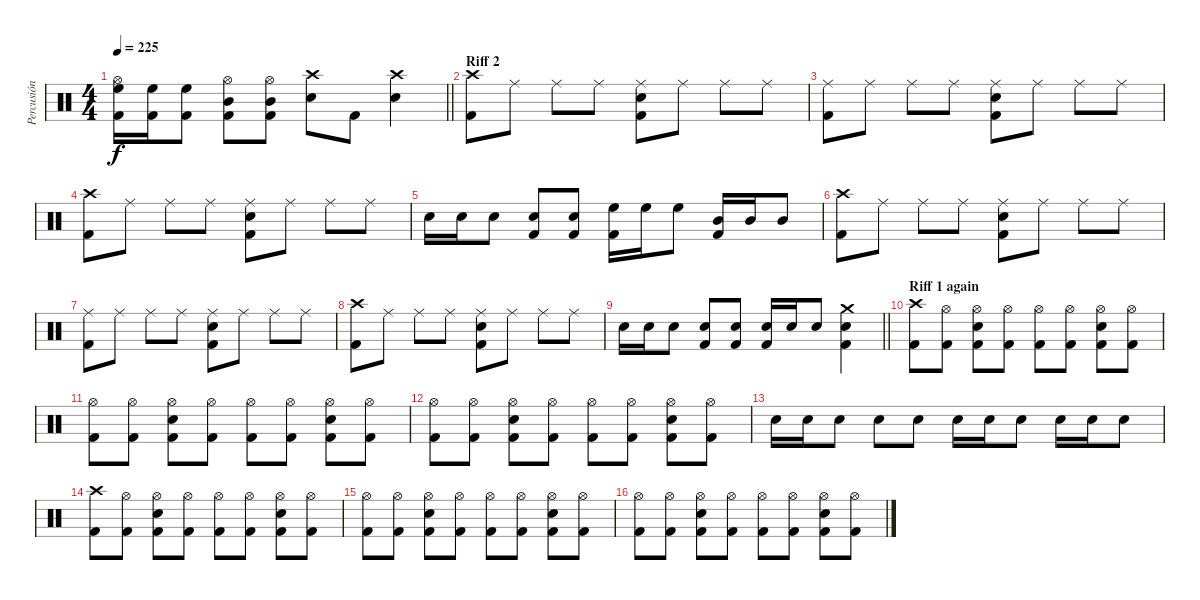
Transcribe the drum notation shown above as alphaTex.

\track ("Percusión" "Percusión") {instrument percussion}
\staff {score}
\articulation defaults
\ts (4 4)
\tempo 225
\clef neutral
\barLineRight lightlight
\ks c
("Hi-Hat (open)" "High Floor Tom (hit)" "Kick (hit) 2").16{dy f} ("High Floor Tom (hit)" "Kick (hit) 2").16 ("High Floor Tom (hit)" "Kick (hit) 2").8 ("Hi-Hat (open)" "Mid Tom (hit)" "Kick (hit) 2").8 ("Hi-Hat (open)" "Mid Tom (hit)" "Kick (hit) 2").8 ("Crash high (hit)" "Electric Snare (hit)").8 "Kick (hit) 2".8 ("Crash high (hit)" "Electric Snare (hit)").4 |
\section ("" "Riff 2")
("Crash high (hit)" "Kick (hit) 2").8 "Ride (middle)".8 "Ride (middle)".8 "Ride (middle)".8 ("Ride (middle)" "Electric Snare (hit)" "Kick (hit) 2").8 "Ride (middle)".8 "Ride (middle)".8 "Ride (middle)".8 |
("Ride (middle)" "Kick (hit) 2").8 "Ride (middle)".8 "Ride (middle)".8 "Ride (middle)".8 ("Ride (middle)" "Electric Snare (hit)" "Kick (hit) 2").8 "Ride (middle)".8 "Ride (middle)".8 "Ride (middle)".8 |
("Crash high (hit)" "Kick (hit) 2").8 "Ride (middle)".8 "Ride (middle)".8 "Ride (middle)".8 ("Ride (middle)" "Electric Snare (hit)" "Kick (hit) 2").8 "Ride (middle)".8 "Ride (middle)".8 "Ride (middle)".8 |
"Electric Snare (hit)".16 "Electric Snare (hit)".16 "Electric Snare (hit)".8 ("Electric Snare (hit)" "Kick (hit) 2").8 ("Electric Snare (hit)" "Kick (hit) 2").8 ("High Floor Tom (hit)" "Kick (hit) 2").16 "High Floor Tom (hit)".16 "High Floor Tom (hit)".8 ("Mid Tom (hit)" "Kick (hit) 2").16 "Mid Tom (hit)".16 "Mid Tom (hit)".8 |
("Crash high (hit)" "Kick (hit) 2").8 "Ride (middle)".8 "Ride (middle)".8 "Ride (middle)".8 ("Ride (middle)" "Electric Snare (hit)" "Kick (hit) 2").8 "Ride (middle)".8 "Ride (middle)".8 "Ride (middle)".8 |
("Ride (middle)" "Kick (hit) 2").8 "Ride (middle)".8 "Ride (middle)".8 "Ride (middle)".8 ("Ride (middle)" "Electric Snare (hit)" "Kick (hit) 2").8 "Ride (middle)".8 "Ride (middle)".8 "Ride (middle)".8 |
("Crash high (hit)" "Kick (hit) 2").8 "Ride (middle)".8 "Ride (middle)".8 "Ride (middle)".8 ("Ride (middle)" "Electric Snare (hit)" "Kick (hit) 2").8 "Ride (middle)".8 "Ride (middle)".8 "Ride (middle)".8 |
\barLineRight lightlight "Electric Snare (hit)".16 "Electric Snare (hit)".16 "Electric Snare (hit)".8
("Electric Snare (hit)" "Kick (hit) 2").8 ("Electric Snare (hit)" "Kick (hit) 2").8 ("Electric Snare (hit)" "Kick (hit) 2").16 "Electric Snare (hit)".16 "Electric Snare (hit)".8 ("Crash medium (hit)" "Electric Snare (hit)" "Kick (hit) 2").4 |
\section ("" "Riff 1 again")
("Crash high (hit)" "Kick (hit) 2").8 ("Hi-Hat (open)" "Kick (hit) 2").8 ("Hi-Hat (open)" "Electric Snare (hit)" "Kick (hit) 2").8 ("Hi-Hat (open)" "Kick (hit) 2").8 ("Hi-Hat (open)" "Kick (hit) 2").8 ("Hi-Hat (open)" "Kick (hit) 2").8 ("Hi-Hat (open)" "Electric Snare (hit)" "Kick (hit) 2").8 ("Hi-Hat (open)" "Kick (hit) 2").8 |
("Hi-Hat (open)" "Kick (hit) 2").8 ("Hi-Hat (open)" "Kick (hit) 2").8 ("Hi-Hat (open)" "Electric Snare (hit)" "Kick (hit) 2").8 ("Hi-Hat (open)" "Kick (hit) 2").8 ("Hi-Hat (open)" "Kick (hit) 2").8 ("Hi-Hat (open)" "Kick (hit) 2").8 ("Hi-Hat (open)" "Electric Snare (hit)" "Kick (hit) 2").8 ("Hi-Hat (open)" "Kick (hit) 2").8 |
("Hi-Hat (open)" "Kick (hit) 2").8 ("Hi-Hat (open)" "Kick (hit) 2").8 ("Hi-Hat (open)" "Electric Snare (hit)" "Kick (hit) 2").8 ("Hi-Hat (open)" "Kick (hit) 2").8 ("Hi-Hat (open)" "Kick (hit) 2").8 ("Hi-Hat (open)" "Kick (hit) 2").8 ("Hi-Hat (open)" "Electric Snare (hit)" "Kick (hit) 2").8 ("Hi-Hat (open)" "Kick (hit) 2").8 |
"Electric Snare (hit)".16 "Electric Snare (hit)".16 "Electric Snare (hit)".8 "Electric Snare (hit)".8 "Electric Snare (hit)".8 "Electric Snare (hit)".16 "Electric Snare (hit)".16 "Electric Snare (hit)".8 "Electric Snare (hit)".16 "Electric Snare (hit)".16 "Electric Snare (hit)".8 |
("Crash high (hit)" "Kick (hit) 2").8 ("Hi-Hat (open)" "Kick (hit) 2").8 ("Hi-Hat (open)" "Electric Snare (hit)" "Kick (hit) 2").8 ("Hi-Hat (open)" "Kick (hit) 2").8 ("Hi-Hat (open)" "Kick (hit) 2").8 ("Hi-Hat (open)" "Kick (hit) 2").8 ("Hi-Hat (open)" "Electric Snare (hit)" "Kick (hit) 2").8 ("Hi-Hat (open)" "Kick (hit) 2").8 |
("Hi-Hat (open)" "Kick (hit) 2").8 ("Hi-Hat (open)" "Kick (hit) 2").8 ("Hi-Hat (open)" "Electric Snare (hit)" "Kick (hit) 2").8 ("Hi-Hat (open)" "Kick (hit) 2").8 ("Hi-Hat (open)" "Kick (hit) 2").8 ("Hi-Hat (open)" "Kick (hit) 2").8 ("Hi-Hat (open)" "Electric Snare (hit)" "Kick (hit) 2").8 ("Hi-Hat (open)" "Kick (hit) 2").8 |
("Hi-Hat (open)" "Kick (hit) 2").8 ("Hi-Hat (open)" "Kick (hit) 2").8 ("Hi-Hat (open)" "Electric Snare (hit)" "Kick (hit) 2").8 ("Hi-Hat (open)" "Kick (hit) 2").8 ("Hi-Hat (open)" "Kick (hit) 2").8 ("Hi-Hat (open)" "Kick (hit) 2").8 ("Hi-Hat (open)" "Electric Snare (hit)" "Kick (hit) 2").8 ("Hi-Hat (open)" "Kick (hit) 2").8
